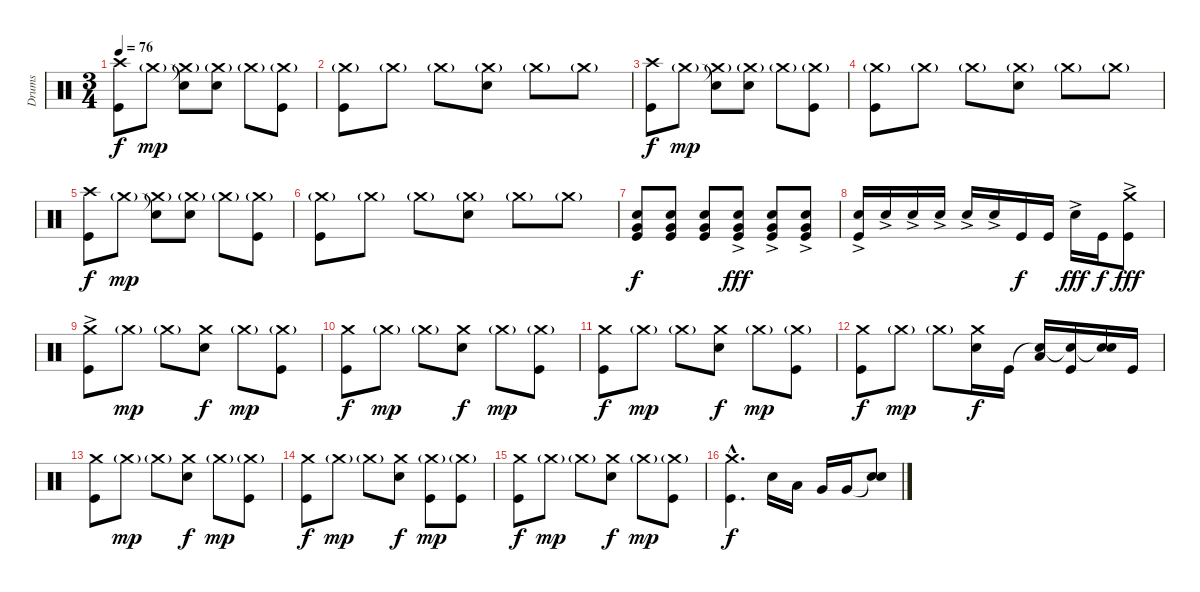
\track ("Drums" "Drums") {instrument percussion}
\staff {score}
\articulation defaults
\ts (3 4)
\tempo 76
\clef neutral
\ks c
("Crash high (hit)" "Kick (hit)").8{dy f} "Crash medium (hit)"{g}.8{dy mp} ("Snare (hit)"{t} "Crash medium (hit)"{g}).8 ("Crash medium (hit)"{g} "Electric Snare (hit)").8 "Crash medium (hit)"{g}.8 ("Crash medium (hit)"{g} "Kick (hit)").8 |
("Crash medium (hit)"{g} "Kick (hit)").8 "Crash medium (hit)"{g}.8 "Crash medium (hit)"{g}.8 ("Crash medium (hit)"{g} "Electric Snare (hit)").8 "Crash medium (hit)"{g}.8 "Crash medium (hit)"{g}.8 |
("Crash high (hit)" "Kick (hit)").8{dy f} "Crash medium (hit)"{g}.8{dy mp} ("Snare (hit)"{t} "Crash medium (hit)"{g}).8 ("Crash medium (hit)"{g} "Electric Snare (hit)").8 "Crash medium (hit)"{g}.8 ("Crash medium (hit)"{g} "Kick (hit)").8 |
("Crash medium (hit)"{g} "Kick (hit)").8 "Crash medium (hit)"{g}.8 "Crash medium (hit)"{g}.8 ("Crash medium (hit)"{g} "Electric Snare (hit)").8 "Crash medium (hit)"{g}.8 "Crash medium (hit)"{g}.8 |
("Crash high (hit)" "Kick (hit)").8{dy f} "Crash medium (hit)"{g}.8{dy mp} ("Snare (hit)"{t} "Crash medium (hit)"{g}).8 ("Crash medium (hit)"{g} "Electric Snare (hit)").8 "Crash medium (hit)"{g}.8 ("Crash medium (hit)"{g} "Kick (hit)").8 |
("Crash medium (hit)"{g} "Kick (hit)").8 "Crash medium (hit)"{g}.8 "Crash medium (hit)"{g}.8 ("Crash medium (hit)"{g} "Electric Snare (hit)").8 "Crash medium (hit)"{g}.8 "Crash medium (hit)"{g}.8 |
("Electric Snare (hit)" "Very Low Tom (hit)" "Kick (hit)").8{dy f} ("Electric Snare (hit)" "Very Low Tom (hit)" "Kick (hit)").8 ("Electric Snare (hit)" "Very Low Tom (hit)" "Kick (hit)").8 ("Electric Snare (hit)"{ac} "Very Low Tom (hit)" "Kick (hit)").8{dy fff} ("Electric Snare (hit)"{ac} "Very Low Tom (hit)" "Kick (hit)").8 ("Electric Snare (hit)"{ac} "Very Low Tom (hit)" "Kick (hit)").8 |
("Electric Snare (hit)"{ac} "Kick (hit)").16 "Electric Snare (hit)"{ac}.16 "Electric Snare (hit)"{ac}.16 "Electric Snare (hit)"{ac}.16 "Electric Snare (hit)"{ac}.16 "Electric Snare (hit)"{ac}.16 "Kick (hit)".16{dy f} "Kick (hit)".16 "Electric Snare (hit)"{ac}.16{dy fff} "Kick (hit)".16{dy f} ("Crash medium (hit)"{ac} "Kick (hit)"{ac}).8{dy fff} |
("Crash medium (hit)"{ac} "Kick (hit)"{ac}).8 "Crash medium (hit)"{g}.8{dy mp} "Crash medium (hit)"{g}.8 ("Crash medium (hit)" "Electric Snare (hit)").8{dy f} "Crash medium (hit)"{g}.8{dy mp} ("Crash medium (hit)"{g} "Kick (hit)").8 |
("Crash medium (hit)" "Kick (hit)").8{dy f} "Crash medium (hit)"{g}.8{dy mp} "Crash medium (hit)"{g}.8 ("Crash medium (hit)" "Electric Snare (hit)").8{dy f} "Crash medium (hit)"{g}.8{dy mp} ("Crash medium (hit)"{g} "Kick (hit)").8 |
("Crash medium (hit)" "Kick (hit)").8{dy f} "Crash medium (hit)"{g}.8{dy mp} "Crash medium (hit)"{g}.8 ("Crash medium (hit)" "Electric Snare (hit)").8{dy f} "Crash medium (hit)"{g}.8{dy mp} ("Crash medium (hit)"{g} "Kick (hit)").8 |
("Crash medium (hit)" "Kick (hit)").8{dy f} "Crash medium (hit)"{g}.8{dy mp} "Crash medium (hit)"{g}.8 ("Crash medium (hit)" "Electric Snare (hit)").16{dy f} "Kick (hit)".16 ("Snare (hit)"{t} "Low Tom (hit)").16 ("Snare (hit)"{t} "Kick (hit)").16 ("Snare (hit)"{t} "Electric Snare (hit)").16 "Kick (hit)".16 |
("Crash medium (hit)" "Kick (hit)").8 "Crash medium (hit)"{g}.8{dy mp} "Crash medium (hit)"{g}.8 ("Crash medium (hit)" "Electric Snare (hit)").8{dy f} "Crash medium (hit)"{g}.8{dy mp} ("Crash medium (hit)"{g} "Kick (hit)").8 |
("Crash medium (hit)" "Kick (hit)").8{dy f} "Crash medium (hit)"{g}.8{dy mp} "Crash medium (hit)"{g}.8 ("Crash medium (hit)" "Electric Snare (hit)").8{dy f} ("Crash medium (hit)"{g} "Kick (hit)").8{dy mp} ("Crash medium (hit)"{g} "Kick (hit)").8 |
("Crash medium (hit)" "Kick (hit)").8{dy f} "Crash medium (hit)"{g}.8{dy mp} "Crash medium (hit)"{g}.8 ("Crash medium (hit)" "Electric Snare (hit)").8{dy f} "Crash medium (hit)"{g}.8{dy mp} ("Crash medium (hit)"{g} "Kick (hit)").8 |
("Crash medium (hit)"{hac} "Kick (hit)"{hac}).4{d dy f} "Electric Snare (hit)".16 "Low Tom (hit)".16 "Very Low Tom (hit)".16 "Very Low Tom (hit)".16 ("Snare (hit)"{t} "Electric Snare (hit)").8
